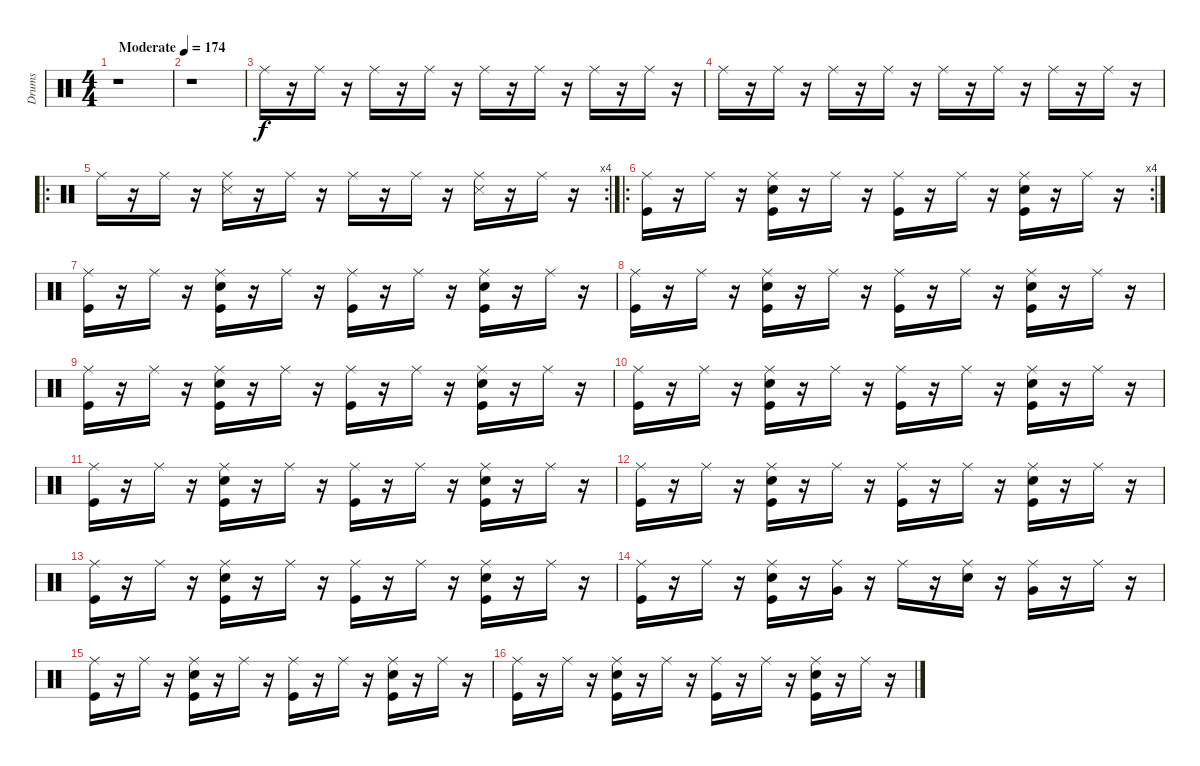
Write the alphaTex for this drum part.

\track ("Drums" "Drums") {instrument percussion}
\staff {score}
\articulation defaults
\ts (4 4)
\tempo (174 "Moderate")
\clef neutral
\ks c
r.1{dy f} |
r.1 |
"Ride (middle)".16 r.16 "Ride (middle)".16 r.16 "Ride (middle)".16 r.16 "Ride (middle)".16 r.16 "Ride (middle)".16 r.16 "Ride (middle)".16 r.16 "Ride (middle)".16 r.16 "Ride (middle)".16 r.16 |
"Ride (middle)".16 r.16 "Ride (middle)".16 r.16 "Ride (middle)".16 r.16 "Ride (middle)".16 r.16 "Ride (middle)".16 r.16 "Ride (middle)".16 r.16 "Ride (middle)".16 r.16 "Ride (middle)".16 r.16 |
\ro
\rc 4 "Ride (middle)".16
r.16 "Ride (middle)".16 r.16 ("Snare (side stick) 3" "Ride (middle)").16 r.16 "Ride (middle)".16 r.16 "Ride (middle)".16 r.16 "Ride (middle)".16 r.16 ("Snare (side stick) 3" "Ride (middle)").16 r.16 "Ride (middle)".16 r.16 |
\ro
\rc 4
("Kick (hit)" "Ride (middle)").16 r.16 "Ride (middle)".16 r.16 ("Kick (hit)" "Snare (hit) 2" "Ride (middle)").16 r.16 "Ride (middle)".16 r.16 ("Kick (hit)" "Ride (middle)").16 r.16 "Ride (middle)".16 r.16 ("Kick (hit)" "Snare (hit) 2" "Ride (middle)").16 r.16 "Ride (middle)".16 r.16 |
("Kick (hit)" "Ride (middle)").16 r.16 "Ride (middle)".16 r.16 ("Kick (hit)" "Snare (hit) 2" "Ride (middle)").16 r.16 "Ride (middle)".16 r.16 ("Kick (hit)" "Ride (middle)").16 r.16 "Ride (middle)".16 r.16 ("Kick (hit)" "Snare (hit) 2" "Ride (middle)").16 r.16 "Ride (middle)".16 r.16 |
("Kick (hit)" "Ride (middle)").16 r.16 "Ride (middle)".16 r.16 ("Kick (hit)" "Snare (hit) 2" "Ride (middle)").16 r.16 "Ride (middle)".16 r.16 ("Kick (hit)" "Ride (middle)").16 r.16 "Ride (middle)".16 r.16 ("Kick (hit)" "Snare (hit) 2" "Ride (middle)").16 r.16 "Ride (middle)".16 r.16 |
("Kick (hit)" "Ride (middle)").16 r.16 "Ride (middle)".16 r.16 ("Kick (hit)" "Snare (hit) 2" "Ride (middle)").16 r.16 "Ride (middle)".16 r.16 ("Kick (hit)" "Ride (middle)").16 r.16 "Ride (middle)".16 r.16 ("Kick (hit)" "Snare (hit) 2" "Ride (middle)").16 r.16 "Ride (middle)".16 r.16 |
("Kick (hit)" "Ride (middle)").16 r.16 "Ride (middle)".16 r.16 ("Kick (hit)" "Snare (hit) 2" "Ride (middle)").16 r.16 "Ride (middle)".16 r.16 ("Kick (hit)" "Ride (middle)").16 r.16 "Ride (middle)".16 r.16 ("Kick (hit)" "Snare (hit) 2" "Ride (middle)").16 r.16 "Ride (middle)".16 r.16 |
("Kick (hit)" "Ride (middle)").16 r.16 "Ride (middle)".16 r.16 ("Kick (hit)" "Snare (hit) 2" "Ride (middle)").16 r.16 "Ride (middle)".16 r.16 ("Kick (hit)" "Ride (middle)").16 r.16 "Ride (middle)".16 r.16 ("Kick (hit)" "Snare (hit) 2" "Ride (middle)").16 r.16 "Ride (middle)".16 r.16 |
("Kick (hit)" "Ride (middle)").16 r.16 "Ride (middle)".16 r.16 ("Kick (hit)" "Snare (hit) 2" "Ride (middle)").16 r.16 "Ride (middle)".16 r.16 ("Kick (hit)" "Ride (middle)").16 r.16 "Ride (middle)".16 r.16 ("Kick (hit)" "Snare (hit) 2" "Ride (middle)").16 r.16 "Ride (middle)".16 r.16 |
("Kick (hit)" "Ride (middle)").16 r.16 "Ride (middle)".16 r.16 ("Kick (hit)" "Snare (hit) 2" "Ride (middle)").16 r.16 "Ride (middle)".16 r.16 ("Kick (hit)" "Ride (middle)").16 r.16 "Ride (middle)".16 r.16 ("Kick (hit)" "Snare (hit) 2" "Ride (middle)").16 r.16 "Ride (middle)".16 r.16 |
("Kick (hit)" "Ride (middle)").16 r.16 "Ride (middle)".16 r.16 ("Snare (hit) 2" "Kick (hit)" "Ride (middle)").16 r.16 ("Very Low Tom (hit)" "Ride (middle)").16 r.16 "Ride (middle)".16 r.16 ("Snare (hit) 2" "Ride (middle)").16 r.16 ("Very Low Tom (hit)" "Ride (middle)").16 r.16 "Ride (middle)".16 r.16 |
("Kick (hit)" "Ride (middle)").16 r.16 "Ride (middle)".16 r.16 ("Kick (hit)" "Snare (hit) 2" "Ride (middle)").16 r.16 "Ride (middle)".16 r.16 ("Kick (hit)" "Ride (middle)").16 r.16 "Ride (middle)".16 r.16 ("Kick (hit)" "Snare (hit) 2" "Ride (middle)").16 r.16 "Ride (middle)".16 r.16 |
("Kick (hit)" "Ride (middle)").16 r.16 "Ride (middle)".16 r.16 ("Kick (hit)" "Snare (hit) 2" "Ride (middle)").16 r.16 "Ride (middle)".16 r.16 ("Kick (hit)" "Ride (middle)").16 r.16 "Ride (middle)".16 r.16 ("Kick (hit)" "Snare (hit) 2" "Ride (middle)").16 r.16 "Ride (middle)".16 r.16
